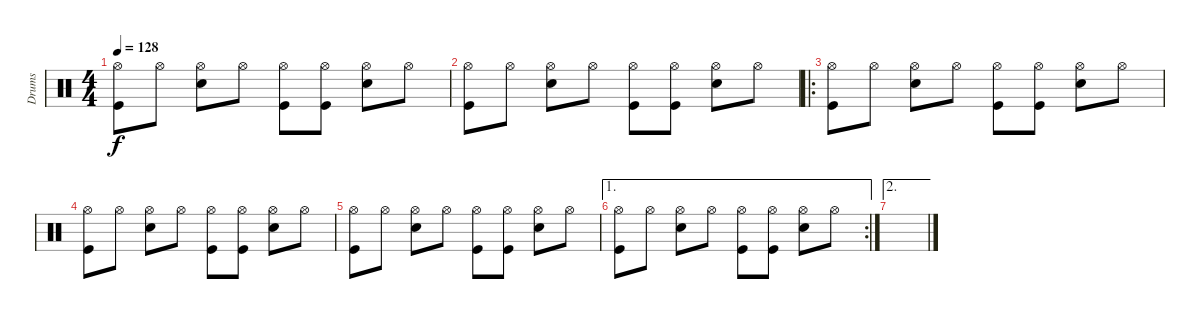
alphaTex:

\track ("Drums" "Drums") {instrument percussion}
\staff {score}
\articulation defaults
\ts (4 4)
\tempo 128
\clef neutral
\ks c
("Hi-Hat (open)" "Kick (hit)").8{dy f} "Hi-Hat (open)".8 ("Hi-Hat (open)" "Electric Snare (hit)").8 "Hi-Hat (open)".8 ("Hi-Hat (open)" "Kick (hit)").8 ("Hi-Hat (open)" "Kick (hit)").8 ("Hi-Hat (open)" "Electric Snare (hit)").8 "Hi-Hat (open)".8 |
("Hi-Hat (open)" "Kick (hit)").8 "Hi-Hat (open)".8 ("Hi-Hat (open)" "Electric Snare (hit)").8 "Hi-Hat (open)".8 ("Hi-Hat (open)" "Kick (hit)").8 ("Hi-Hat (open)" "Kick (hit)").8 ("Hi-Hat (open)" "Electric Snare (hit)").8 "Hi-Hat (open)".8 |
\ro
("Hi-Hat (open)" "Kick (hit)").8 "Hi-Hat (open)".8 ("Hi-Hat (open)" "Electric Snare (hit)").8 "Hi-Hat (open)".8 ("Hi-Hat (open)" "Kick (hit)").8 ("Hi-Hat (open)" "Kick (hit)").8 ("Hi-Hat (open)" "Electric Snare (hit)").8 "Hi-Hat (open)".8 |
("Hi-Hat (open)" "Kick (hit)").8 "Hi-Hat (open)".8 ("Hi-Hat (open)" "Electric Snare (hit)").8 "Hi-Hat (open)".8 ("Hi-Hat (open)" "Kick (hit)").8 ("Hi-Hat (open)" "Kick (hit)").8 ("Hi-Hat (open)" "Electric Snare (hit)").8 "Hi-Hat (open)".8 |
("Hi-Hat (open)" "Kick (hit)").8 "Hi-Hat (open)".8 ("Hi-Hat (open)" "Electric Snare (hit)").8 "Hi-Hat (open)".8 ("Hi-Hat (open)" "Kick (hit)").8 ("Hi-Hat (open)" "Kick (hit)").8 ("Hi-Hat (open)" "Electric Snare (hit)").8 "Hi-Hat (open)".8 |
\ae 1
\rc 2
("Hi-Hat (open)" "Kick (hit)").8 "Hi-Hat (open)".8 ("Hi-Hat (open)" "Electric Snare (hit)").8 "Hi-Hat (open)".8 ("Hi-Hat (open)" "Kick (hit)").8 ("Hi-Hat (open)" "Kick (hit)").8 ("Hi-Hat (open)" "Electric Snare (hit)").8 "Hi-Hat (open)".8 |
\ae 2
